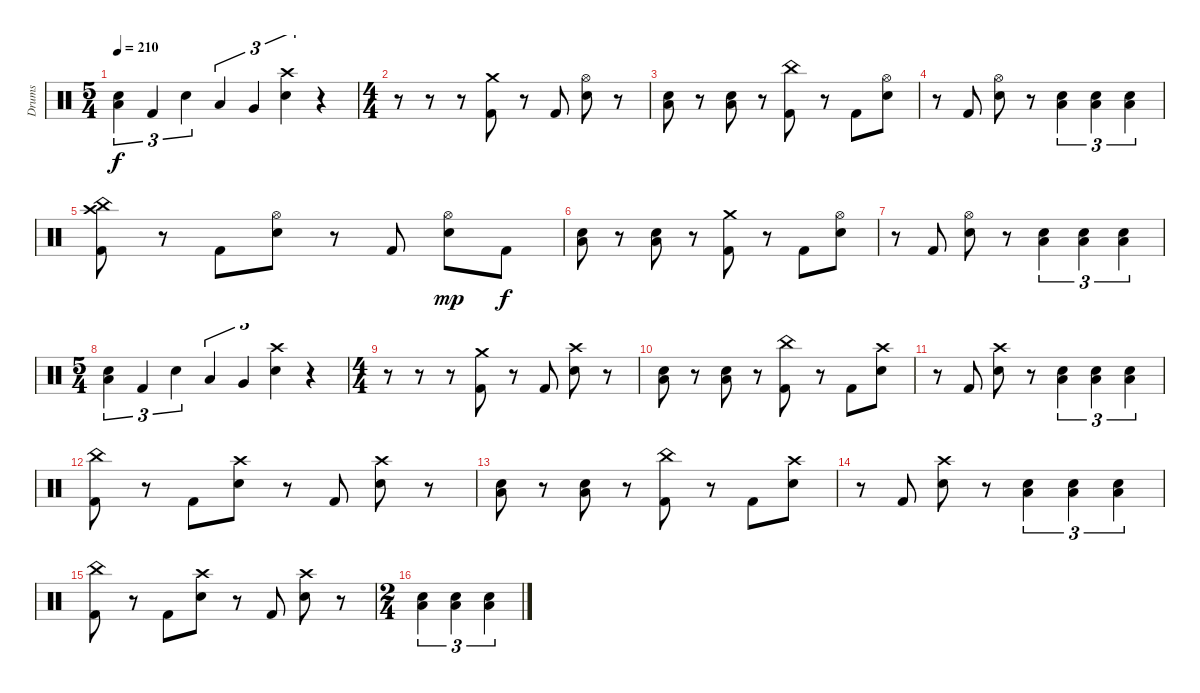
\track ("Drums" "Drums") {instrument percussion}
\staff {score}
\articulation defaults
\ts (5 4)
\tempo 210
\clef neutral
\ks c
("Low Floor Tom (hit)" "Electric Snare (hit)").4{tu (3 2) dy f} "Kick (hit) 2".4{tu (3 2)} "Electric Snare (hit)".4{tu (3 2)} "Low Tom (hit)".4{tu (3 2)} "Very Low Tom (hit)".4{tu (3 2)} ("Crash high (hit)" "Electric Snare (hit)").4{tu (3 2)} r.4 |
\ts (4 4)
r.8 r.8 r.8 ("Crash medium (hit)" "Kick (hit) 2").8 r.8 "Kick (hit) 2".8 ("Hi-Hat (open)" "Electric Snare (hit)").8 r.8 |
("Low Floor Tom (hit)" "Electric Snare (hit)").8 r.8 ("Low Floor Tom (hit)" "Electric Snare (hit)").8 r.8 ("China (hit)" "Kick (hit) 2").8 r.8 "Kick (hit) 2".8 ("Hi-Hat (open)" "Electric Snare (hit)").8 |
r.8 "Kick (hit) 2".8 ("Hi-Hat (open)" "Electric Snare (hit)").8 r.8 ("Low Floor Tom (hit)" "Electric Snare (hit)").4{tu (3 2)} ("Low Floor Tom (hit)" "Electric Snare (hit)").4{tu (3 2)} ("Low Floor Tom (hit)" "Electric Snare (hit)").4{tu (3 2)} |
("Crash high (hit)" "China (hit)" "Kick (hit) 2").8 r.8 "Kick (hit) 2".8 ("Hi-Hat (open)" "Electric Snare (hit)").8 r.8 "Kick (hit) 2".8 ("Hi-Hat (open)" "Electric Snare (hit)").8{dy mp} "Kick (hit) 2".8{dy f} |
("Low Floor Tom (hit)" "Electric Snare (hit)").8 r.8 ("Low Floor Tom (hit)" "Electric Snare (hit)").8 r.8 ("Crash medium (hit)" "Kick (hit) 2").8 r.8 "Kick (hit) 2".8 ("Hi-Hat (open)" "Electric Snare (hit)").8 |
r.8 "Kick (hit) 2".8 ("Hi-Hat (open)" "Electric Snare (hit)").8 r.8 ("Low Floor Tom (hit)" "Electric Snare (hit)").4{tu (3 2)} ("Low Floor Tom (hit)" "Electric Snare (hit)").4{tu (3 2)} ("Low Floor Tom (hit)" "Electric Snare (hit)").4{tu (3 2)} |
\ts (5 4)
("Low Floor Tom (hit)" "Electric Snare (hit)").4{tu (3 2)} "Kick (hit) 2".4{tu (3 2)} "Electric Snare (hit)".4{tu (3 2)} "Low Tom (hit)".4{tu (3 2)} "Very Low Tom (hit)".4{tu (3 2)} ("Crash high (hit)" "Electric Snare (hit)").4{tu (3 2)} r.4 |
\ts (4 4)
r.8 r.8 r.8 ("Crash medium (hit)" "Kick (hit) 2").8 r.8 "Kick (hit) 2".8 ("Crash high (hit)" "Electric Snare (hit)").8 r.8 |
("Low Floor Tom (hit)" "Electric Snare (hit)").8 r.8 ("Low Floor Tom (hit)" "Electric Snare (hit)").8 r.8 ("China (hit)" "Kick (hit) 2").8 r.8 "Kick (hit) 2".8 ("Crash high (hit)" "Electric Snare (hit)").8 |
r.8 "Kick (hit) 2".8 ("Crash high (hit)" "Electric Snare (hit)").8 r.8 ("Low Floor Tom (hit)" "Electric Snare (hit)").4{tu (3 2)} ("Low Floor Tom (hit)" "Electric Snare (hit)").4{tu (3 2)} ("Low Floor Tom (hit)" "Electric Snare (hit)").4{tu (3 2)} |
("China (hit)" "Kick (hit) 2").8 r.8 "Kick (hit) 2".8 ("Crash high (hit)" "Electric Snare (hit)").8 r.8 "Kick (hit) 2".8 ("Crash high (hit)" "Electric Snare (hit)").8 r.8 |
("Low Floor Tom (hit)" "Electric Snare (hit)").8 r.8 ("Low Floor Tom (hit)" "Electric Snare (hit)").8 r.8 ("China (hit)" "Kick (hit) 2").8 r.8 "Kick (hit) 2".8 ("Crash high (hit)" "Electric Snare (hit)").8 |
r.8 "Kick (hit) 2".8 ("Crash high (hit)" "Electric Snare (hit)").8 r.8 ("Low Floor Tom (hit)" "Electric Snare (hit)").4{tu (3 2)} ("Low Floor Tom (hit)" "Electric Snare (hit)").4{tu (3 2)} ("Low Floor Tom (hit)" "Electric Snare (hit)").4{tu (3 2)} |
("China (hit)" "Kick (hit) 2").8 r.8 "Kick (hit) 2".8 ("Crash high (hit)" "Electric Snare (hit)").8 r.8 "Kick (hit) 2".8 ("Crash high (hit)" "Electric Snare (hit)").8 r.8 |
\ts (2 4)
("Low Floor Tom (hit)" "Electric Snare (hit)").4{tu (3 2)} ("Low Floor Tom (hit)" "Electric Snare (hit)").4{tu (3 2)} ("Low Floor Tom (hit)" "Electric Snare (hit)").4{tu (3 2)}
